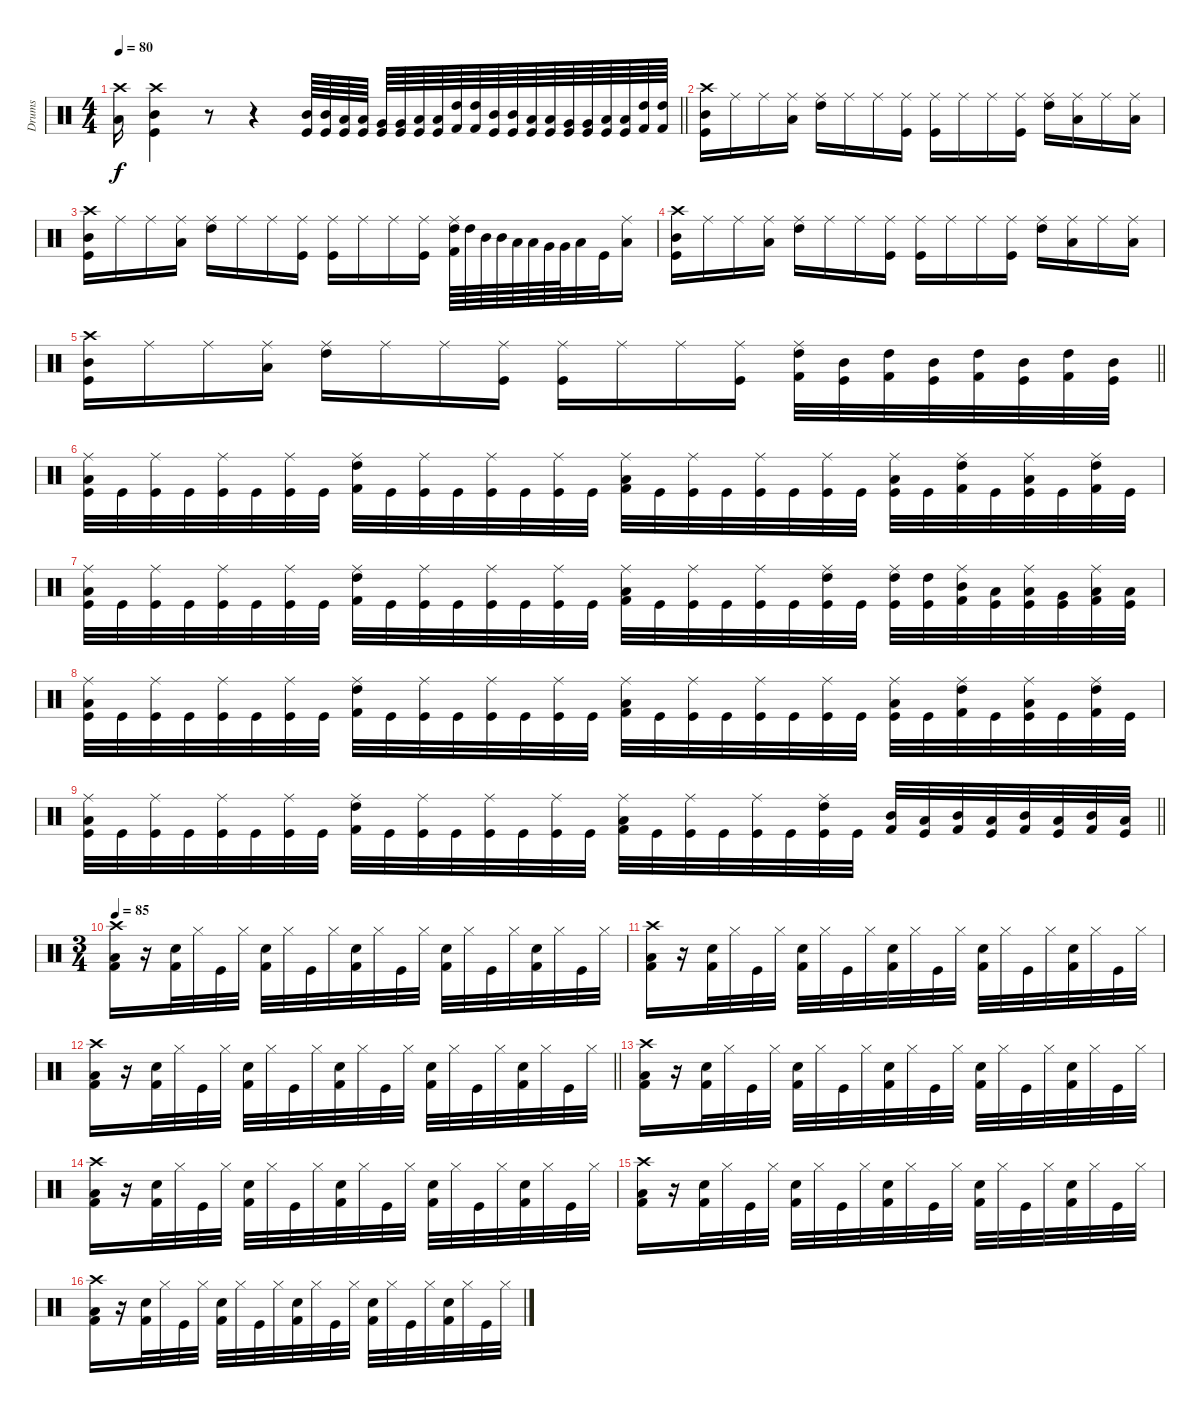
\track ("Drums" "Drums") {instrument percussion}
\staff {score}
\articulation defaults
\ts (4 4)
\tempo 80
\clef neutral
\barLineRight lightlight
\ks c
("Low Tom (hit)" "Crash high (hit)").16{dy f} ("Kick (hit)" "Mid Tom (hit)" "Crash high (hit)").4 r.8 r.4 ("Kick (hit)" "Mid Tom (hit)").64 ("Kick (hit)" "Mid Tom (hit)").64 ("Kick (hit)" "Low Tom (hit)").64 ("Kick (hit)" "Low Tom (hit)").64 ("Kick (hit)" "Very Low Tom (hit)").64 ("Kick (hit)" "Very Low Tom (hit)").64 ("Kick (hit)" "Low Floor Tom (hit)").64 ("Kick (hit)" "Low Floor Tom (hit)").64 ("Kick (hit) 2" "High Tom (hit)").64 ("Kick (hit) 2" "High Tom (hit)").64 ("Kick (hit)" "Mid Tom (hit)").64 ("Kick (hit)" "Mid Tom (hit)").64 ("Kick (hit)" "Low Tom (hit)").64 ("Kick (hit)" "Low Tom (hit)").64 ("Kick (hit)" "Very Low Tom (hit)").64 ("Kick (hit)" "Very Low Tom (hit)").64 ("Kick (hit)" "Low Floor Tom (hit)").64 ("Kick (hit)" "Low Floor Tom (hit)").64 ("Kick (hit) 2" "High Tom (hit)").64 ("Kick (hit) 2" "High Tom (hit)").64 |
("Kick (hit)" "Mid Tom (hit)" "Crash high (hit)").16 "Ride (middle)".16 "Ride (middle)".16 ("Low Floor Tom (hit)" "Ride (middle)").16 ("High Tom (hit)" "Ride (middle)").16 "Ride (middle)".16 "Ride (middle)".16 ("Kick (hit)" "Ride (middle)").16 ("Kick (hit)" "Ride (middle)").16 "Ride (middle)".16 "Ride (middle)".16 ("Kick (hit)" "Ride (middle)").16 ("High Tom (hit)" "Ride (middle)").16 ("Low Floor Tom (hit)" "Ride (middle)").16 "Ride (middle)".16 ("Low Floor Tom (hit)" "Ride (middle)").16 |
("Kick (hit)" "Mid Tom (hit)" "Crash high (hit)").16 "Ride (middle)".16 "Ride (middle)".16 ("Low Floor Tom (hit)" "Ride (middle)").16 ("High Tom (hit)" "Ride (middle)").16 "Ride (middle)".16 "Ride (middle)".16 ("Kick (hit)" "Ride (middle)").16 ("Kick (hit)" "Ride (middle)").16 "Ride (middle)".16 "Ride (middle)".16 ("Kick (hit)" "Ride (middle)").16 ("Kick (hit) 2" "High Tom (hit)" "Ride (middle)").64 "High Tom (hit)".64 "Mid Tom (hit)".64 "Mid Tom (hit)".64 "Low Tom (hit)".64 "Low Tom (hit)".64 "Very Low Tom (hit)".64 "Very Low Tom (hit)".64 "Low Floor Tom (hit)".32 "Kick (hit)".32 ("Low Floor Tom (hit)" "Ride (middle)").16 |
("Kick (hit)" "Mid Tom (hit)" "Crash high (hit)").16 "Ride (middle)".16 "Ride (middle)".16 ("Low Floor Tom (hit)" "Ride (middle)").16 ("High Tom (hit)" "Ride (middle)").16 "Ride (middle)".16 "Ride (middle)".16 ("Kick (hit)" "Ride (middle)").16 ("Kick (hit)" "Ride (middle)").16 "Ride (middle)".16 "Ride (middle)".16 ("Kick (hit)" "Ride (middle)").16 ("High Tom (hit)" "Ride (middle)").16 ("Low Floor Tom (hit)" "Ride (middle)").16 "Ride (middle)".16 ("Low Floor Tom (hit)" "Ride (middle)").16 |
\barLineRight lightlight
("Kick (hit)" "Mid Tom (hit)" "Crash high (hit)").16 "Ride (middle)".16 "Ride (middle)".16 ("Low Floor Tom (hit)" "Ride (middle)").16 ("High Tom (hit)" "Ride (middle)").16 "Ride (middle)".16 "Ride (middle)".16 ("Kick (hit)" "Ride (middle)").16 ("Kick (hit)" "Ride (middle)").16 "Ride (middle)".16 "Ride (middle)".16 ("Kick (hit)" "Ride (middle)").16 ("Kick (hit) 2" "High Tom (hit)" "Ride (middle)").32 ("Kick (hit)" "Mid Tom (hit)").32 ("Kick (hit) 2" "High Tom (hit)").32 ("Kick (hit)" "Mid Tom (hit)").32 ("Kick (hit) 2" "High Tom (hit)").32 ("Kick (hit)" "Mid Tom (hit)").32 ("Kick (hit) 2" "High Tom (hit)").32 ("Kick (hit)" "Mid Tom (hit)").32 |
("Kick (hit)" "Low Floor Tom (hit)" "Ride (middle)").32 "Kick (hit)".32 ("Kick (hit)" "Ride (middle)").32 "Kick (hit)".32 ("Kick (hit)" "Ride (middle)").32 "Kick (hit)".32 ("Kick (hit)" "Ride (middle)").32 "Kick (hit)".32 ("Kick (hit) 2" "High Tom (hit)" "Ride (middle)").32 "Kick (hit)".32 ("Kick (hit)" "Ride (middle)").32 "Kick (hit)".32 ("Kick (hit)" "Ride (middle)").32 "Kick (hit)".32 ("Kick (hit)" "Ride (middle)").32 "Kick (hit)".32 ("Kick (hit) 2" "Low Floor Tom (hit)" "Ride (middle)").32 "Kick (hit)".32 ("Kick (hit)" "Ride (middle)").32 "Kick (hit)".32 ("Kick (hit)" "Ride (middle)").32 "Kick (hit)".32 ("Kick (hit)" "Ride (middle)").32 "Kick (hit)".32 ("Kick (hit)" "Low Floor Tom (hit)" "Ride (middle)").32 "Kick (hit)".32 ("Kick (hit) 2" "High Tom (hit)" "Ride (middle)").32 "Kick (hit)".32 ("Kick (hit)" "Low Floor Tom (hit)" "Ride (middle)").32 "Kick (hit)".32 ("Kick (hit) 2" "High Tom (hit)" "Ride (middle)").32 "Kick (hit)".32 |
("Kick (hit)" "Low Floor Tom (hit)" "Ride (middle)").32 "Kick (hit)".32 ("Kick (hit)" "Ride (middle)").32 "Kick (hit)".32 ("Kick (hit)" "Ride (middle)").32 "Kick (hit)".32 ("Kick (hit)" "Ride (middle)").32 "Kick (hit)".32 ("Kick (hit) 2" "High Tom (hit)" "Ride (middle)").32 "Kick (hit)".32 ("Kick (hit)" "Ride (middle)").32 "Kick (hit)".32 ("Kick (hit)" "Ride (middle)").32 "Kick (hit)".32 ("Kick (hit)" "Ride (middle)").32 "Kick (hit)".32 ("Kick (hit) 2" "Low Floor Tom (hit)" "Ride (middle)").32 "Kick (hit)".32 ("Kick (hit)" "Ride (middle)").32 "Kick (hit)".32 ("Kick (hit)" "Ride (middle)").32 "Kick (hit)".32 ("Kick (hit)" "High Tom (hit)" "Ride (middle)").32 "Kick (hit)".32 ("Kick (hit)" "High Tom (hit)" "Ride (middle)").32 ("Kick (hit)" "High Tom (hit)").32 ("Kick (hit) 2" "Mid Tom (hit)" "Ride (middle)").32 ("Kick (hit)" "Low Tom (hit)").32 ("Kick (hit)" "Low Tom (hit)" "Ride (middle)").32 ("Kick (hit)" "Very Low Tom (hit)").32 ("Kick (hit) 2" "Low Floor Tom (hit)" "Ride (middle)").32 ("Kick (hit)" "Low Floor Tom (hit)").32 |
("Kick (hit)" "Low Floor Tom (hit)" "Ride (middle)").32 "Kick (hit)".32 ("Kick (hit)" "Ride (middle)").32 "Kick (hit)".32 ("Kick (hit)" "Ride (middle)").32 "Kick (hit)".32 ("Kick (hit)" "Ride (middle)").32 "Kick (hit)".32 ("Kick (hit) 2" "High Tom (hit)" "Ride (middle)").32 "Kick (hit)".32 ("Kick (hit)" "Ride (middle)").32 "Kick (hit)".32 ("Kick (hit)" "Ride (middle)").32 "Kick (hit)".32 ("Kick (hit)" "Ride (middle)").32 "Kick (hit)".32 ("Kick (hit) 2" "Low Floor Tom (hit)" "Ride (middle)").32 "Kick (hit)".32 ("Kick (hit)" "Ride (middle)").32 "Kick (hit)".32 ("Kick (hit)" "Ride (middle)").32 "Kick (hit)".32 ("Kick (hit)" "Ride (middle)").32 "Kick (hit)".32 ("Kick (hit)" "Low Floor Tom (hit)" "Ride (middle)").32 "Kick (hit)".32 ("Kick (hit) 2" "High Tom (hit)" "Ride (middle)").32 "Kick (hit)".32 ("Kick (hit)" "Low Floor Tom (hit)" "Ride (middle)").32 "Kick (hit)".32 ("Kick (hit) 2" "High Tom (hit)" "Ride (middle)").32 "Kick (hit)".32 |
\barLineRight lightlight
("Kick (hit)" "Low Floor Tom (hit)" "Ride (middle)").32 "Kick (hit)".32 ("Kick (hit)" "Ride (middle)").32 "Kick (hit)".32 ("Kick (hit)" "Ride (middle)").32 "Kick (hit)".32 ("Kick (hit)" "Ride (middle)").32 "Kick (hit)".32 ("Kick (hit) 2" "High Tom (hit)" "Ride (middle)").32 "Kick (hit)".32 ("Kick (hit)" "Ride (middle)").32 "Kick (hit)".32 ("Kick (hit)" "Ride (middle)").32 "Kick (hit)".32 ("Kick (hit)" "Ride (middle)").32 "Kick (hit)".32 ("Kick (hit) 2" "Low Floor Tom (hit)" "Ride (middle)").32 "Kick (hit)".32 ("Kick (hit)" "Ride (middle)").32 "Kick (hit)".32 ("Kick (hit)" "Ride (middle)").32 "Kick (hit)".32 ("Kick (hit)" "High Tom (hit)" "Ride (middle)").32 "Kick (hit)".32 ("Kick (hit) 2" "Mid Tom (hit)").32 ("Kick (hit)" "Low Floor Tom (hit)").32 ("Kick (hit) 2" "Mid Tom (hit)").32 ("Kick (hit)" "Low Floor Tom (hit)").32 ("Kick (hit) 2" "Mid Tom (hit)").32 ("Kick (hit)" "Low Floor Tom (hit)").32 ("Kick (hit) 2" "Mid Tom (hit)").32 ("Kick (hit)" "Low Floor Tom (hit)").32 |
\ts (3 4)
\tempo 85
("Crash high (hit)" "Low Floor Tom (hit)" "Kick (hit) 2").16 r.16 ("Snare (hit) 2" "Kick (hit) 2").32 "Hi-Hat (closed)".32 "Kick (hit)".32 "Hi-Hat (closed)".32 ("Snare (hit) 2" "Kick (hit) 2").32 "Hi-Hat (closed)".32 "Kick (hit)".32 "Hi-Hat (closed)".32 ("Snare (hit) 2" "Kick (hit) 2").32 "Hi-Hat (closed)".32 "Kick (hit)".32 "Hi-Hat (closed)".32 ("Snare (hit) 2" "Kick (hit) 2").32 "Hi-Hat (closed)".32 "Kick (hit)".32 "Hi-Hat (closed)".32 ("Snare (hit) 2" "Kick (hit) 2").32 "Hi-Hat (closed)".32 "Kick (hit)".32 "Hi-Hat (closed)".32 |
("Crash high (hit)" "Low Floor Tom (hit)" "Kick (hit) 2").16 r.16 ("Snare (hit) 2" "Kick (hit) 2").32 "Hi-Hat (closed)".32 "Kick (hit)".32 "Hi-Hat (closed)".32 ("Snare (hit) 2" "Kick (hit) 2").32 "Hi-Hat (closed)".32 "Kick (hit)".32 "Hi-Hat (closed)".32 ("Snare (hit) 2" "Kick (hit) 2").32 "Hi-Hat (closed)".32 "Kick (hit)".32 "Hi-Hat (closed)".32 ("Snare (hit) 2" "Kick (hit) 2").32 "Hi-Hat (closed)".32 "Kick (hit)".32 "Hi-Hat (closed)".32 ("Snare (hit) 2" "Kick (hit) 2").32 "Hi-Hat (closed)".32 "Kick (hit)".32 "Hi-Hat (closed)".32 |
\barLineRight lightlight
("Crash high (hit)" "Low Floor Tom (hit)" "Kick (hit) 2").16 r.16 ("Snare (hit) 2" "Kick (hit) 2").32 "Hi-Hat (closed)".32 "Kick (hit)".32 "Hi-Hat (closed)".32 ("Snare (hit) 2" "Kick (hit) 2").32 "Hi-Hat (closed)".32 "Kick (hit)".32 "Hi-Hat (closed)".32 ("Snare (hit) 2" "Kick (hit) 2").32 "Hi-Hat (closed)".32 "Kick (hit)".32 "Hi-Hat (closed)".32 ("Snare (hit) 2" "Kick (hit) 2").32 "Hi-Hat (closed)".32 "Kick (hit)".32 "Hi-Hat (closed)".32 ("Snare (hit) 2" "Kick (hit) 2").32 "Hi-Hat (closed)".32 "Kick (hit)".32 "Hi-Hat (closed)".32 |
("Crash high (hit)" "Low Floor Tom (hit)" "Kick (hit) 2").16 r.16 ("Snare (hit) 2" "Kick (hit) 2").32 "Hi-Hat (closed)".32 "Kick (hit)".32 "Hi-Hat (closed)".32 ("Snare (hit) 2" "Kick (hit) 2").32 "Hi-Hat (closed)".32 "Kick (hit)".32 "Hi-Hat (closed)".32 ("Snare (hit) 2" "Kick (hit) 2").32 "Hi-Hat (closed)".32 "Kick (hit)".32 "Hi-Hat (closed)".32 ("Snare (hit) 2" "Kick (hit) 2").32 "Hi-Hat (closed)".32 "Kick (hit)".32 "Hi-Hat (closed)".32 ("Snare (hit) 2" "Kick (hit) 2").32 "Hi-Hat (closed)".32 "Kick (hit)".32 "Hi-Hat (closed)".32 |
("Crash high (hit)" "Low Floor Tom (hit)" "Kick (hit) 2").16 r.16 ("Snare (hit) 2" "Kick (hit) 2").32 "Hi-Hat (closed)".32 "Kick (hit)".32 "Hi-Hat (closed)".32 ("Snare (hit) 2" "Kick (hit) 2").32 "Hi-Hat (closed)".32 "Kick (hit)".32 "Hi-Hat (closed)".32 ("Snare (hit) 2" "Kick (hit) 2").32 "Hi-Hat (closed)".32 "Kick (hit)".32 "Hi-Hat (closed)".32 ("Snare (hit) 2" "Kick (hit) 2").32 "Hi-Hat (closed)".32 "Kick (hit)".32 "Hi-Hat (closed)".32 ("Snare (hit) 2" "Kick (hit) 2").32 "Hi-Hat (closed)".32 "Kick (hit)".32 "Hi-Hat (closed)".32 |
("Crash high (hit)" "Low Floor Tom (hit)" "Kick (hit) 2").16 r.16 ("Snare (hit) 2" "Kick (hit) 2").32 "Hi-Hat (closed)".32 "Kick (hit)".32 "Hi-Hat (closed)".32 ("Snare (hit) 2" "Kick (hit) 2").32 "Hi-Hat (closed)".32 "Kick (hit)".32 "Hi-Hat (closed)".32 ("Snare (hit) 2" "Kick (hit) 2").32 "Hi-Hat (closed)".32 "Kick (hit)".32 "Hi-Hat (closed)".32 ("Snare (hit) 2" "Kick (hit) 2").32 "Hi-Hat (closed)".32 "Kick (hit)".32 "Hi-Hat (closed)".32 ("Snare (hit) 2" "Kick (hit) 2").32 "Hi-Hat (closed)".32 "Kick (hit)".32 "Hi-Hat (closed)".32 |
("Crash high (hit)" "Low Floor Tom (hit)" "Kick (hit) 2").16 r.16 ("Snare (hit) 2" "Kick (hit) 2").32 "Hi-Hat (closed)".32 "Kick (hit)".32 "Hi-Hat (closed)".32 ("Snare (hit) 2" "Kick (hit) 2").32 "Hi-Hat (closed)".32 "Kick (hit)".32 "Hi-Hat (closed)".32 ("Snare (hit) 2" "Kick (hit) 2").32 "Hi-Hat (closed)".32 "Kick (hit)".32 "Hi-Hat (closed)".32 ("Snare (hit) 2" "Kick (hit) 2").32 "Hi-Hat (closed)".32 "Kick (hit)".32 "Hi-Hat (closed)".32 ("Snare (hit) 2" "Kick (hit) 2").32 "Hi-Hat (closed)".32 "Kick (hit)".32 "Hi-Hat (closed)".32
